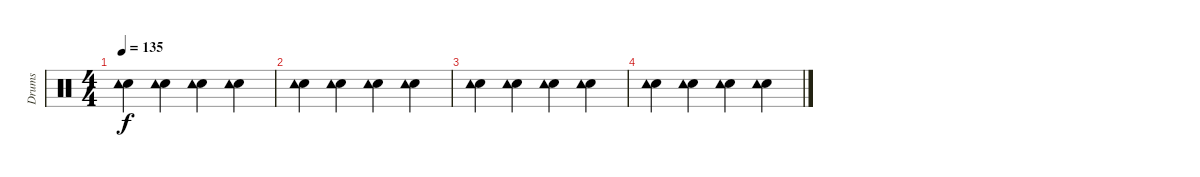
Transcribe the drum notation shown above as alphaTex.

\track ("Drums" "Drums") {instrument percussion}
\staff {score}
\articulation defaults
\ts (4 4)
\tempo 135
\clef neutral
\ks c
("Snare (hit) 2" "Tambourine (hit)").4{dy f} ("Snare (hit) 2" "Tambourine (hit)").4 ("Snare (hit) 2" "Tambourine (hit)").4 ("Snare (hit) 2" "Tambourine (hit)").4 |
("Snare (hit) 2" "Tambourine (hit)").4 ("Snare (hit) 2" "Tambourine (hit)").4 ("Snare (hit) 2" "Tambourine (hit)").4 ("Snare (hit) 2" "Tambourine (hit)").4 |
("Snare (hit) 2" "Tambourine (hit)").4 ("Snare (hit) 2" "Tambourine (hit)").4 ("Snare (hit) 2" "Tambourine (hit)").4 ("Snare (hit) 2" "Tambourine (hit)").4 |
("Snare (hit) 2" "Tambourine (hit)").4 ("Snare (hit) 2" "Tambourine (hit)").4 ("Snare (hit) 2" "Tambourine (hit)").4 ("Snare (hit) 2" "Tambourine (hit)").4
